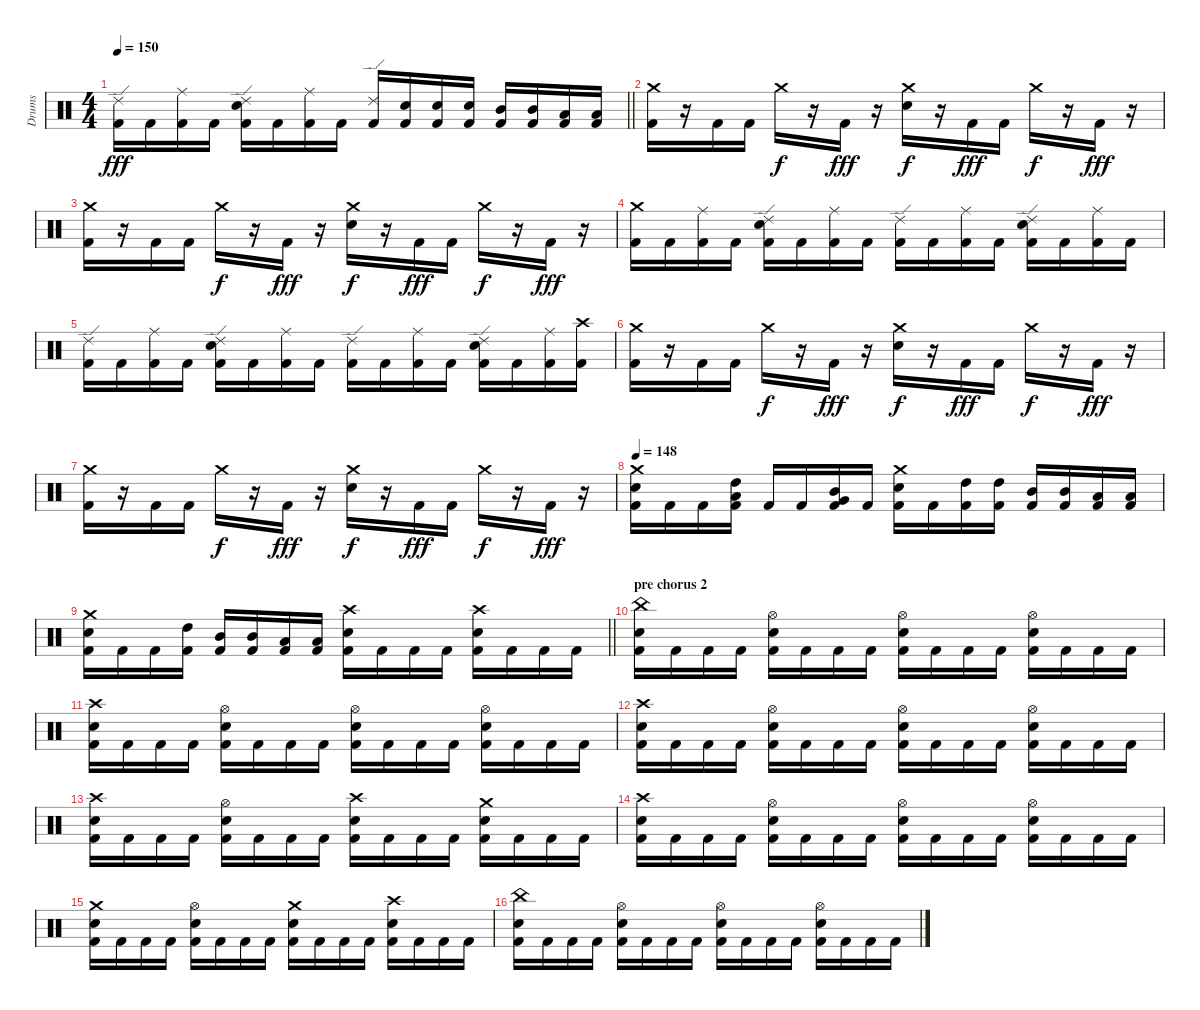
\track ("Drums" "Drums") {instrument percussion}
\staff {score}
\articulation defaults
\ts (4 4)
\tempo 150
\clef neutral
\barLineRight lightlight
\ks c
("Ride (edge) 2" "Kick (hit) 2").16{dy fff} "Kick (hit) 2".16 ("Ride (middle)" "Kick (hit) 2").16 "Kick (hit) 2".16 ("Ride (edge) 2" "Electric Snare (hit)" "Kick (hit) 2").16 "Kick (hit) 2".16 ("Ride (middle)" "Kick (hit) 2").16 "Kick (hit) 2".16 ("Ride (edge) 2" "Kick (hit) 2").16 ("Electric Snare (hit)" "Kick (hit) 2").16 ("Electric Snare (hit)" "Kick (hit) 2").16 ("Electric Snare (hit)" "Kick (hit) 2").16 ("Mid Tom (hit)" "Kick (hit) 2").16 ("Mid Tom (hit)" "Kick (hit) 2").16 ("Low Tom (hit)" "Kick (hit) 2").16 ("Low Tom (hit)" "Kick (hit) 2").16 |
("Crash medium (hit)" "Kick (hit) 2").16 r.16 "Kick (hit) 2".16 "Kick (hit) 2".16 "Crash medium (hit)".16{dy f} r.16 "Kick (hit) 2".16{dy fff} r.16 ("Crash medium (hit)" "Electric Snare (hit)").16{dy f} r.16 "Kick (hit) 2".16{dy fff} "Kick (hit) 2".16 "Crash medium (hit)".16{dy f} r.16 "Kick (hit) 2".16{dy fff} r.16 |
("Crash medium (hit)" "Kick (hit) 2").16 r.16 "Kick (hit) 2".16 "Kick (hit) 2".16 "Crash medium (hit)".16{dy f} r.16 "Kick (hit) 2".16{dy fff} r.16 ("Crash medium (hit)" "Electric Snare (hit)").16{dy f} r.16 "Kick (hit) 2".16{dy fff} "Kick (hit) 2".16 "Crash medium (hit)".16{dy f} r.16 "Kick (hit) 2".16{dy fff} r.16 |
("Crash medium (hit)" "Kick (hit) 2").16 "Kick (hit) 2".16 ("Ride (middle)" "Kick (hit) 2").16 "Kick (hit) 2".16 ("Ride (edge) 2" "Electric Snare (hit)" "Kick (hit) 2").16 "Kick (hit) 2".16 ("Ride (middle)" "Kick (hit) 2").16 "Kick (hit) 2".16 ("Ride (edge) 2" "Kick (hit) 2").16 "Kick (hit) 2".16 ("Ride (middle)" "Kick (hit) 2").16 "Kick (hit) 2".16 ("Ride (edge) 2" "Electric Snare (hit)" "Kick (hit) 2").16 "Kick (hit) 2".16 ("Ride (middle)" "Kick (hit) 2").16 "Kick (hit) 2".16 |
("Ride (edge) 2" "Kick (hit) 2").16 "Kick (hit) 2".16 ("Ride (middle)" "Kick (hit) 2").16 "Kick (hit) 2".16 ("Ride (edge) 2" "Electric Snare (hit)" "Kick (hit) 2").16 "Kick (hit) 2".16 ("Ride (middle)" "Kick (hit) 2").16 "Kick (hit) 2".16 ("Ride (edge) 2" "Kick (hit) 2").16 "Kick (hit) 2".16 ("Ride (middle)" "Kick (hit) 2").16 "Kick (hit) 2".16 ("Ride (edge) 2" "Electric Snare (hit)" "Kick (hit) 2").16 "Kick (hit) 2".16 ("Ride (middle)" "Kick (hit) 2").16 ("Crash high (hit)" "Kick (hit) 2").16 |
("Crash medium (hit)" "Kick (hit) 2").16 r.16 "Kick (hit) 2".16 "Kick (hit) 2".16 "Crash medium (hit)".16{dy f} r.16 "Kick (hit) 2".16{dy fff} r.16 ("Crash medium (hit)" "Electric Snare (hit)").16{dy f} r.16 "Kick (hit) 2".16{dy fff} "Kick (hit) 2".16 "Crash medium (hit)".16{dy f} r.16 "Kick (hit) 2".16{dy fff} r.16 |
("Crash medium (hit)" "Kick (hit) 2").16 r.16 "Kick (hit) 2".16 "Kick (hit) 2".16 "Crash medium (hit)".16{dy f} r.16 "Kick (hit) 2".16{dy fff} r.16 ("Crash medium (hit)" "Electric Snare (hit)").16{dy f} r.16 "Kick (hit) 2".16{dy fff} "Kick (hit) 2".16 "Crash medium (hit)".16{dy f} r.16 "Kick (hit) 2".16{dy fff} r.16 |
\tempo 148
("Crash medium (hit)" "Electric Snare (hit)" "Kick (hit) 2").16 "Kick (hit) 2".16 "Kick (hit) 2".16 ("High Tom (hit)" "Low Tom (hit)" "Kick (hit) 2").16 "Kick (hit) 2".16 "Kick (hit) 2".16 ("Mid Tom (hit)" "Very Low Tom (hit)" "Kick (hit) 2").16 "Kick (hit) 2".16 ("Crash medium (hit)" "Electric Snare (hit)" "Kick (hit) 2").16 "Kick (hit) 2".16 ("High Tom (hit)" "Kick (hit) 2").16 ("High Tom (hit)" "Kick (hit) 2").16 ("Mid Tom (hit)" "Kick (hit) 2").16 ("Mid Tom (hit)" "Kick (hit) 2").16 ("Low Tom (hit)" "Kick (hit) 2").16 ("Low Tom (hit)" "Kick (hit) 2").16 |
\barLineRight lightlight
("Crash medium (hit)" "Electric Snare (hit)" "Kick (hit) 2").16 "Kick (hit) 2".16 "Kick (hit) 2".16 ("High Tom (hit)" "Kick (hit) 2").16 ("Mid Tom (hit)" "Kick (hit) 2").16 ("Mid Tom (hit)" "Kick (hit) 2").16 ("Low Tom (hit)" "Kick (hit) 2").16 ("Low Tom (hit)" "Kick (hit) 2").16 ("Crash high (hit)" "Electric Snare (hit)" "Kick (hit) 2").16 "Kick (hit) 2".16 "Kick (hit) 2".16 "Kick (hit) 2".16 ("Crash high (hit)" "Electric Snare (hit)" "Kick (hit) 2").16 "Kick (hit) 2".16 "Kick (hit) 2".16 "Kick (hit) 2".16 |
\section ("" "pre chorus 2")
("China (hit)" "Electric Snare (hit)" "Kick (hit) 2").16 "Kick (hit) 2".16 "Kick (hit) 2".16 "Kick (hit) 2".16 ("Hi-Hat (open)" "Electric Snare (hit)" "Kick (hit) 2").16 "Kick (hit) 2".16 "Kick (hit) 2".16 "Kick (hit) 2".16 ("Hi-Hat (open)" "Electric Snare (hit)" "Kick (hit) 2").16 "Kick (hit) 2".16 "Kick (hit) 2".16 "Kick (hit) 2".16 ("Hi-Hat (open)" "Electric Snare (hit)" "Kick (hit) 2").16 "Kick (hit) 2".16 "Kick (hit) 2".16 "Kick (hit) 2".16 |
("Crash high (hit)" "Electric Snare (hit)" "Kick (hit) 2").16 "Kick (hit) 2".16 "Kick (hit) 2".16 "Kick (hit) 2".16 ("Hi-Hat (open)" "Electric Snare (hit)" "Kick (hit) 2").16 "Kick (hit) 2".16 "Kick (hit) 2".16 "Kick (hit) 2".16 ("Hi-Hat (open)" "Electric Snare (hit)" "Kick (hit) 2").16 "Kick (hit) 2".16 "Kick (hit) 2".16 "Kick (hit) 2".16 ("Hi-Hat (open)" "Electric Snare (hit)" "Kick (hit) 2").16 "Kick (hit) 2".16 "Kick (hit) 2".16 "Kick (hit) 2".16 |
("Crash high (hit)" "Electric Snare (hit)" "Kick (hit) 2").16 "Kick (hit) 2".16 "Kick (hit) 2".16 "Kick (hit) 2".16 ("Hi-Hat (open)" "Electric Snare (hit)" "Kick (hit) 2").16 "Kick (hit) 2".16 "Kick (hit) 2".16 "Kick (hit) 2".16 ("Hi-Hat (open)" "Electric Snare (hit)" "Kick (hit) 2").16 "Kick (hit) 2".16 "Kick (hit) 2".16 "Kick (hit) 2".16 ("Hi-Hat (open)" "Electric Snare (hit)" "Kick (hit) 2").16 "Kick (hit) 2".16 "Kick (hit) 2".16 "Kick (hit) 2".16 |
("Crash high (hit)" "Electric Snare (hit)" "Kick (hit) 2").16 "Kick (hit) 2".16 "Kick (hit) 2".16 "Kick (hit) 2".16 ("Hi-Hat (open)" "Electric Snare (hit)" "Kick (hit) 2").16 "Kick (hit) 2".16 "Kick (hit) 2".16 "Kick (hit) 2".16 ("Crash high (hit)" "Electric Snare (hit)" "Kick (hit) 2").16 "Kick (hit) 2".16 "Kick (hit) 2".16 "Kick (hit) 2".16 ("Crash medium (hit)" "Electric Snare (hit)" "Kick (hit) 2").16 "Kick (hit) 2".16 "Kick (hit) 2".16 "Kick (hit) 2".16 |
("Crash high (hit)" "Electric Snare (hit)" "Kick (hit) 2").16 "Kick (hit) 2".16 "Kick (hit) 2".16 "Kick (hit) 2".16 ("Hi-Hat (open)" "Electric Snare (hit)" "Kick (hit) 2").16 "Kick (hit) 2".16 "Kick (hit) 2".16 "Kick (hit) 2".16 ("Hi-Hat (open)" "Electric Snare (hit)" "Kick (hit) 2").16 "Kick (hit) 2".16 "Kick (hit) 2".16 "Kick (hit) 2".16 ("Hi-Hat (open)" "Electric Snare (hit)" "Kick (hit) 2").16 "Kick (hit) 2".16 "Kick (hit) 2".16 "Kick (hit) 2".16 |
("Crash medium (hit)" "Electric Snare (hit)" "Kick (hit) 2").16 "Kick (hit) 2".16 "Kick (hit) 2".16 "Kick (hit) 2".16 ("Hi-Hat (open)" "Electric Snare (hit)" "Kick (hit) 2").16 "Kick (hit) 2".16 "Kick (hit) 2".16 "Kick (hit) 2".16 ("Crash medium (hit)" "Electric Snare (hit)" "Kick (hit) 2").16 "Kick (hit) 2".16 "Kick (hit) 2".16 "Kick (hit) 2".16 ("Crash high (hit)" "Electric Snare (hit)" "Kick (hit) 2").16 "Kick (hit) 2".16 "Kick (hit) 2".16 "Kick (hit) 2".16 |
("China (hit)" "Electric Snare (hit)" "Kick (hit) 2").16 "Kick (hit) 2".16 "Kick (hit) 2".16 "Kick (hit) 2".16 ("Hi-Hat (open)" "Electric Snare (hit)" "Kick (hit) 2").16 "Kick (hit) 2".16 "Kick (hit) 2".16 "Kick (hit) 2".16 ("Hi-Hat (open)" "Electric Snare (hit)" "Kick (hit) 2").16 "Kick (hit) 2".16 "Kick (hit) 2".16 "Kick (hit) 2".16 ("Hi-Hat (open)" "Electric Snare (hit)" "Kick (hit) 2").16 "Kick (hit) 2".16 "Kick (hit) 2".16 "Kick (hit) 2".16
